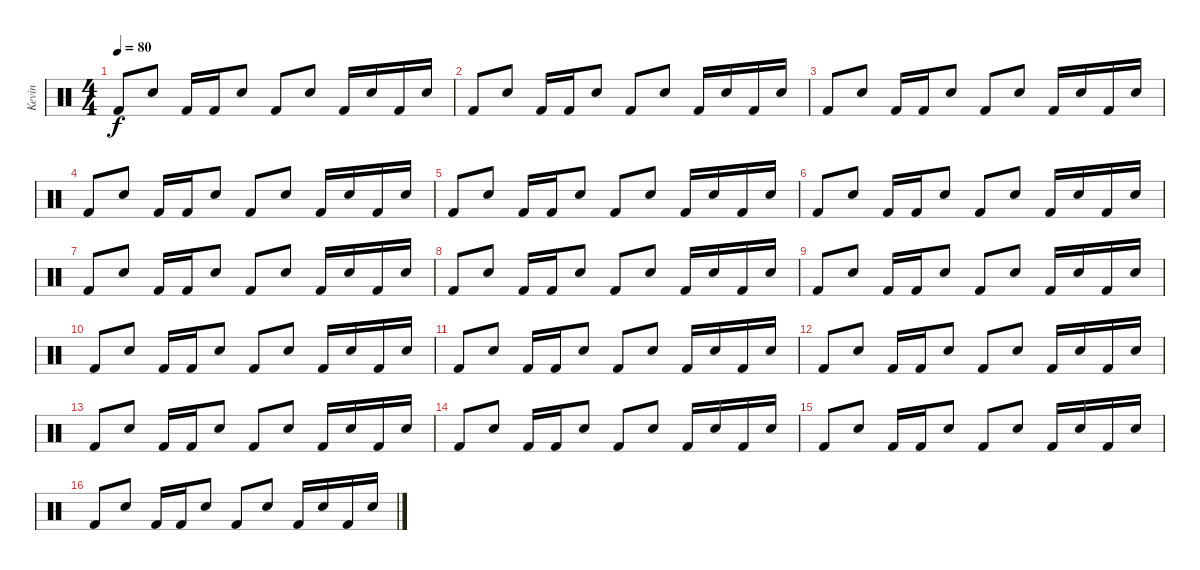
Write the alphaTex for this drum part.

\track ("Kevin" "Kevin") {instrument percussion}
\staff {score}
\articulation defaults
\ts (4 4)
\tempo 80
\clef neutral
\ks c "Kick (hit) 2".8{dy f} "Snare (hit) 2".8 "Kick (hit) 2".16 "Kick (hit) 2".16 "Snare (hit) 2".8 "Kick (hit) 2".8 "Snare (hit) 2".8 "Kick (hit) 2".16 "Snare (hit) 2".16 "Kick (hit) 2".16 "Snare (hit) 2".16
|
"Kick (hit) 2".8 "Snare (hit) 2".8 "Kick (hit) 2".16 "Kick (hit) 2".16 "Snare (hit) 2".8 "Kick (hit) 2".8 "Snare (hit) 2".8 "Kick (hit) 2".16 "Snare (hit) 2".16 "Kick (hit) 2".16 "Snare (hit) 2".16 |
"Kick (hit) 2".8 "Snare (hit) 2".8 "Kick (hit) 2".16 "Kick (hit) 2".16 "Snare (hit) 2".8 "Kick (hit) 2".8 "Snare (hit) 2".8 "Kick (hit) 2".16 "Snare (hit) 2".16 "Kick (hit) 2".16 "Snare (hit) 2".16 |
"Kick (hit) 2".8 "Snare (hit) 2".8 "Kick (hit) 2".16 "Kick (hit) 2".16 "Snare (hit) 2".8 "Kick (hit) 2".8 "Snare (hit) 2".8 "Kick (hit) 2".16 "Snare (hit) 2".16 "Kick (hit) 2".16 "Snare (hit) 2".16 |
"Kick (hit) 2".8 "Snare (hit) 2".8 "Kick (hit) 2".16 "Kick (hit) 2".16 "Snare (hit) 2".8 "Kick (hit) 2".8 "Snare (hit) 2".8 "Kick (hit) 2".16 "Snare (hit) 2".16 "Kick (hit) 2".16 "Snare (hit) 2".16 |
"Kick (hit) 2".8 "Snare (hit) 2".8 "Kick (hit) 2".16 "Kick (hit) 2".16 "Snare (hit) 2".8 "Kick (hit) 2".8 "Snare (hit) 2".8 "Kick (hit) 2".16 "Snare (hit) 2".16 "Kick (hit) 2".16 "Snare (hit) 2".16 |
"Kick (hit) 2".8 "Snare (hit) 2".8 "Kick (hit) 2".16 "Kick (hit) 2".16 "Snare (hit) 2".8 "Kick (hit) 2".8 "Snare (hit) 2".8 "Kick (hit) 2".16 "Snare (hit) 2".16 "Kick (hit) 2".16 "Snare (hit) 2".16 |
"Kick (hit) 2".8 "Snare (hit) 2".8 "Kick (hit) 2".16 "Kick (hit) 2".16 "Snare (hit) 2".8 "Kick (hit) 2".8 "Snare (hit) 2".8 "Kick (hit) 2".16 "Snare (hit) 2".16 "Kick (hit) 2".16 "Snare (hit) 2".16 |
"Kick (hit) 2".8 "Snare (hit) 2".8 "Kick (hit) 2".16 "Kick (hit) 2".16 "Snare (hit) 2".8 "Kick (hit) 2".8 "Snare (hit) 2".8 "Kick (hit) 2".16 "Snare (hit) 2".16 "Kick (hit) 2".16 "Snare (hit) 2".16 |
"Kick (hit) 2".8 "Snare (hit) 2".8 "Kick (hit) 2".16 "Kick (hit) 2".16 "Snare (hit) 2".8 "Kick (hit) 2".8 "Snare (hit) 2".8 "Kick (hit) 2".16 "Snare (hit) 2".16 "Kick (hit) 2".16 "Snare (hit) 2".16 |
"Kick (hit) 2".8 "Snare (hit) 2".8 "Kick (hit) 2".16 "Kick (hit) 2".16 "Snare (hit) 2".8 "Kick (hit) 2".8 "Snare (hit) 2".8 "Kick (hit) 2".16 "Snare (hit) 2".16 "Kick (hit) 2".16 "Snare (hit) 2".16 |
"Kick (hit) 2".8 "Snare (hit) 2".8 "Kick (hit) 2".16 "Kick (hit) 2".16 "Snare (hit) 2".8 "Kick (hit) 2".8 "Snare (hit) 2".8 "Kick (hit) 2".16 "Snare (hit) 2".16 "Kick (hit) 2".16 "Snare (hit) 2".16 |
"Kick (hit) 2".8 "Snare (hit) 2".8 "Kick (hit) 2".16 "Kick (hit) 2".16 "Snare (hit) 2".8 "Kick (hit) 2".8 "Snare (hit) 2".8 "Kick (hit) 2".16 "Snare (hit) 2".16 "Kick (hit) 2".16 "Snare (hit) 2".16 |
"Kick (hit) 2".8 "Snare (hit) 2".8 "Kick (hit) 2".16 "Kick (hit) 2".16 "Snare (hit) 2".8 "Kick (hit) 2".8 "Snare (hit) 2".8 "Kick (hit) 2".16 "Snare (hit) 2".16 "Kick (hit) 2".16 "Snare (hit) 2".16 |
"Kick (hit) 2".8 "Snare (hit) 2".8 "Kick (hit) 2".16 "Kick (hit) 2".16 "Snare (hit) 2".8 "Kick (hit) 2".8 "Snare (hit) 2".8 "Kick (hit) 2".16 "Snare (hit) 2".16 "Kick (hit) 2".16 "Snare (hit) 2".16 |
"Kick (hit) 2".8 "Snare (hit) 2".8 "Kick (hit) 2".16 "Kick (hit) 2".16 "Snare (hit) 2".8 "Kick (hit) 2".8 "Snare (hit) 2".8 "Kick (hit) 2".16 "Snare (hit) 2".16 "Kick (hit) 2".16 "Snare (hit) 2".16
